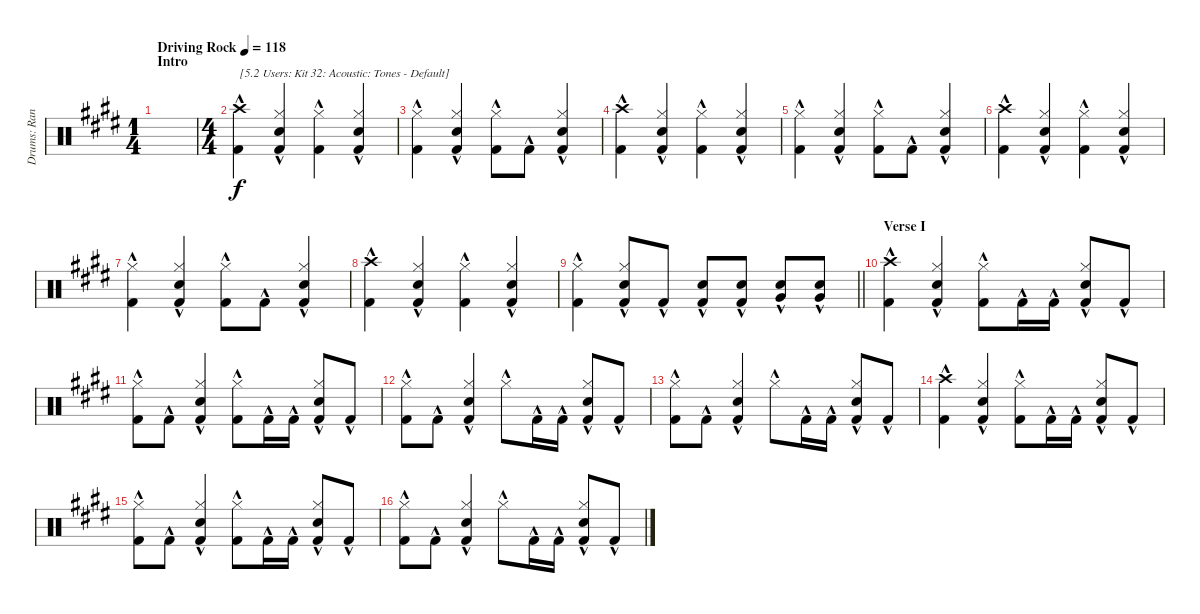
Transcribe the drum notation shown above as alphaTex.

\track ("Drums: Randy" "Drums: Ran") {instrument percussion}
\staff {score}
\articulation defaults
\ts (1 4)
\section ("" "Intro")
\tempo (118 "Driving Rock")
\clef neutral
\ks e
|
\ts (4 4)
("Crash high (hit)"{hac} "Kick (hit) 2"{hac}).4{txt "[5.2 Users: Kit 32: Acoustic: Tones - Default]"} ("Hi-Hat (closed)"{hac} "Snare (hit) 2"{hac} "Kick (hit) 2"{hac}).4 ("Hi-Hat (closed)"{hac} "Kick (hit) 2"{hac}).4 ("Hi-Hat (closed)"{hac} "Snare (hit) 2"{hac} "Kick (hit) 2"{hac}).4 |
("Hi-Hat (closed)"{hac} "Kick (hit) 2"{hac}).4 ("Hi-Hat (closed)"{hac} "Snare (hit) 2"{hac} "Kick (hit) 2"{hac}).4 ("Hi-Hat (closed)"{hac} "Kick (hit) 2"{hac}).8 "Kick (hit) 2"{hac}.8 ("Hi-Hat (closed)"{hac} "Snare (hit) 2"{hac} "Kick (hit) 2"{hac}).4 |
("Crash high (hit)"{hac} "Kick (hit) 2"{hac}).4 ("Hi-Hat (closed)"{hac} "Snare (hit) 2"{hac} "Kick (hit) 2"{hac}).4 ("Hi-Hat (closed)"{hac} "Kick (hit) 2"{hac}).4 ("Hi-Hat (closed)"{hac} "Snare (hit) 2"{hac} "Kick (hit) 2"{hac}).4 |
("Hi-Hat (closed)"{hac} "Kick (hit) 2"{hac}).4 ("Hi-Hat (closed)"{hac} "Snare (hit) 2"{hac} "Kick (hit) 2"{hac}).4 ("Hi-Hat (closed)"{hac} "Kick (hit) 2"{hac}).8 "Kick (hit) 2"{hac}.8 ("Hi-Hat (closed)"{hac} "Snare (hit) 2"{hac} "Kick (hit) 2"{hac}).4 |
("Crash high (hit)"{hac} "Kick (hit) 2"{hac}).4 ("Hi-Hat (closed)"{hac} "Snare (hit) 2"{hac} "Kick (hit) 2"{hac}).4 ("Hi-Hat (closed)"{hac} "Kick (hit) 2"{hac}).4 ("Hi-Hat (closed)"{hac} "Snare (hit) 2"{hac} "Kick (hit) 2"{hac}).4 |
("Hi-Hat (closed)"{hac} "Kick (hit) 2"{hac}).4 ("Hi-Hat (closed)"{hac} "Snare (hit) 2"{hac} "Kick (hit) 2"{hac}).4 ("Hi-Hat (closed)"{hac} "Kick (hit) 2"{hac}).8 "Kick (hit) 2"{hac}.8 ("Hi-Hat (closed)"{hac} "Snare (hit) 2"{hac} "Kick (hit) 2"{hac}).4 |
("Crash high (hit)"{hac} "Kick (hit) 2"{hac}).4 ("Hi-Hat (closed)"{hac} "Snare (hit) 2"{hac} "Kick (hit) 2"{hac}).4 ("Hi-Hat (closed)"{hac} "Kick (hit) 2"{hac}).4 ("Hi-Hat (closed)"{hac} "Snare (hit) 2"{hac} "Kick (hit) 2"{hac}).4 |
\barLineRight lightlight
("Hi-Hat (closed)"{hac} "Kick (hit) 2"{hac}).4 ("Hi-Hat (closed)"{hac} "Snare (hit) 2"{hac} "Kick (hit) 2"{hac}).8 "Kick (hit) 2"{hac}.8 ("Snare (hit) 2"{hac} "Kick (hit) 2"{hac}).8 ("Snare (hit) 2"{hac} "Kick (hit) 2"{hac}).8 ("Snare (hit) 2"{hac} "Very Low Tom (hit)"{hac}).8 ("Snare (hit) 2"{hac} "Very Low Tom (hit)"{hac}).8 |
\section ("" "Verse I")
("Crash high (hit)"{hac} "Kick (hit) 2"{hac}).4 ("Hi-Hat (closed)"{hac} "Snare (hit) 2"{hac} "Kick (hit) 2"{hac}).4 ("Hi-Hat (closed)"{hac} "Kick (hit) 2"{hac}).8 "Kick (hit) 2"{hac}.16 "Kick (hit) 2"{hac}.16 ("Hi-Hat (closed)"{hac} "Snare (hit) 2"{hac} "Kick (hit) 2"{hac}).8 "Kick (hit) 2"{hac}.8 |
("Hi-Hat (closed)"{hac} "Kick (hit) 2"{hac}).8 "Kick (hit) 2"{hac}.8 ("Hi-Hat (closed)"{hac} "Snare (hit) 2"{hac} "Kick (hit) 2"{hac}).4 ("Hi-Hat (closed)"{hac} "Kick (hit) 2"{hac}).8 "Kick (hit) 2"{hac}.16 "Kick (hit) 2"{hac}.16 ("Hi-Hat (closed)"{hac} "Snare (hit) 2"{hac} "Kick (hit) 2"{hac}).8 "Kick (hit) 2"{hac}.8 |
("Hi-Hat (closed)"{hac} "Kick (hit) 2"{hac}).8 "Kick (hit) 2"{hac}.8 ("Hi-Hat (closed)"{hac} "Snare (hit) 2"{hac} "Kick (hit) 2"{hac}).4 "Hi-Hat (closed)"{hac}.8 "Kick (hit) 2"{hac}.16 "Kick (hit) 2"{hac}.16 ("Hi-Hat (closed)"{hac} "Snare (hit) 2"{hac} "Kick (hit) 2"{hac}).8 "Kick (hit) 2"{hac}.8 |
("Hi-Hat (closed)"{hac} "Kick (hit) 2"{hac}).8 "Kick (hit) 2"{hac}.8 ("Hi-Hat (closed)"{hac} "Snare (hit) 2"{hac} "Kick (hit) 2"{hac}).4 "Hi-Hat (closed)"{hac}.8 "Kick (hit) 2"{hac}.16 "Kick (hit) 2"{hac}.16 ("Hi-Hat (closed)"{hac} "Snare (hit) 2"{hac} "Kick (hit) 2"{hac}).8 "Kick (hit) 2"{hac}.8 |
("Crash high (hit)"{hac} "Kick (hit) 2"{hac}).4 ("Hi-Hat (closed)"{hac} "Snare (hit) 2"{hac} "Kick (hit) 2"{hac}).4 ("Hi-Hat (closed)"{hac} "Kick (hit) 2"{hac}).8 "Kick (hit) 2"{hac}.16 "Kick (hit) 2"{hac}.16 ("Hi-Hat (closed)"{hac} "Snare (hit) 2"{hac} "Kick (hit) 2"{hac}).8 "Kick (hit) 2"{hac}.8 |
("Hi-Hat (closed)"{hac} "Kick (hit) 2"{hac}).8 "Kick (hit) 2"{hac}.8 ("Hi-Hat (closed)"{hac} "Snare (hit) 2"{hac} "Kick (hit) 2"{hac}).4 ("Hi-Hat (closed)"{hac} "Kick (hit) 2"{hac}).8 "Kick (hit) 2"{hac}.16 "Kick (hit) 2"{hac}.16 ("Hi-Hat (closed)"{hac} "Snare (hit) 2"{hac} "Kick (hit) 2"{hac}).8 "Kick (hit) 2"{hac}.8 |
("Hi-Hat (closed)"{hac} "Kick (hit) 2"{hac}).8 "Kick (hit) 2"{hac}.8 ("Hi-Hat (closed)"{hac} "Snare (hit) 2"{hac} "Kick (hit) 2"{hac}).4 "Hi-Hat (closed)"{hac}.8 "Kick (hit) 2"{hac}.16 "Kick (hit) 2"{hac}.16 ("Hi-Hat (closed)"{hac} "Snare (hit) 2"{hac} "Kick (hit) 2"{hac}).8 "Kick (hit) 2"{hac}.8
